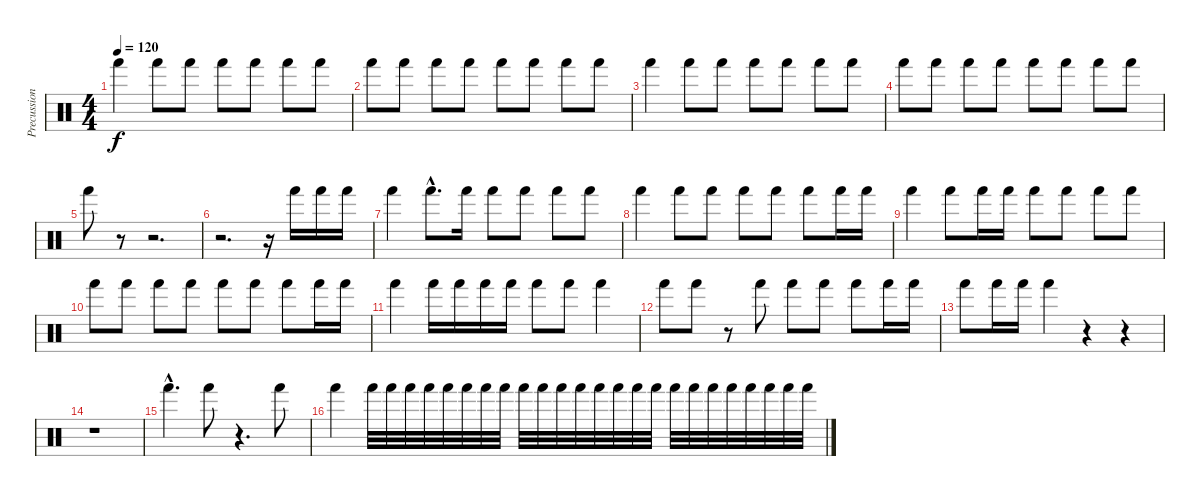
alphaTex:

\track ("Precussion" "Precussion") {instrument percussion}
\staff {score}
\articulation defaults
\ts (4 4)
\tempo 120
\clef neutral
\ks c "Hand (hit)".4{dy f} "Hand (hit)".8 "Hand (hit)".8 "Hand (hit)".8 "Hand (hit)".8 "Hand (hit)".8 "Hand (hit)".8
|
"Hand (hit)".8 "Hand (hit)".8 "Hand (hit)".8 "Hand (hit)".8 "Hand (hit)".8 "Hand (hit)".8 "Hand (hit)".8 "Hand (hit)".8 |
"Hand (hit)".4 "Hand (hit)".8 "Hand (hit)".8 "Hand (hit)".8 "Hand (hit)".8 "Hand (hit)".8 "Hand (hit)".8 |
"Hand (hit)".8 "Hand (hit)".8 "Hand (hit)".8 "Hand (hit)".8 "Hand (hit)".8 "Hand (hit)".8 "Hand (hit)".8 "Hand (hit)".8 |
"Hand (hit)".8 r.8 r.2{d} |
r.2{d} r.16 "Hand (hit)".16 "Hand (hit)".16 "Hand (hit)".16 |
"Hand (hit)".4 "Hand (hit)"{hac}.8{d} "Hand (hit)".16 "Hand (hit)".8 "Hand (hit)".8 "Hand (hit)".8 "Hand (hit)".8 |
"Hand (hit)".4 "Hand (hit)".8 "Hand (hit)".8 "Hand (hit)".8 "Hand (hit)".8 "Hand (hit)".8 "Hand (hit)".16 "Hand (hit)".16 |
"Hand (hit)".4 "Hand (hit)".8 "Hand (hit)".16 "Hand (hit)".16 "Hand (hit)".8 "Hand (hit)".8 "Hand (hit)".8 "Hand (hit)".8 |
"Hand (hit)".8 "Hand (hit)".8 "Hand (hit)".8 "Hand (hit)".8 "Hand (hit)".8 "Hand (hit)".8 "Hand (hit)".8 "Hand (hit)".16 "Hand (hit)".16 |
"Hand (hit)".4 "Hand (hit)".16 "Hand (hit)".16 "Hand (hit)".16 "Hand (hit)".16 "Hand (hit)".8 "Hand (hit)".8 "Hand (hit)".4 |
"Hand (hit)".8 "Hand (hit)".8 r.8 "Hand (hit)".8 "Hand (hit)".8 "Hand (hit)".8 "Hand (hit)".8 "Hand (hit)".16 "Hand (hit)".16 |
"Hand (hit)".8 "Hand (hit)".16 "Hand (hit)".16 "Hand (hit)".4 r.4 r.4 |
r.1 |
"Hand (hit)"{hac}.4{d} "Hand (hit)".8 r.4{d} "Hand (hit)".8 |
"Hand (hit)".4 "Hand (hit)".32 "Hand (hit)".32 "Hand (hit)".32 "Hand (hit)".32 "Hand (hit)".32 "Hand (hit)".32 "Hand (hit)".32 "Hand (hit)".32 "Hand (hit)".32 "Hand (hit)".32 "Hand (hit)".32 "Hand (hit)".32 "Hand (hit)".32 "Hand (hit)".32 "Hand (hit)".32 "Hand (hit)".32 "Hand (hit)".32 "Hand (hit)".32 "Hand (hit)".32 "Hand (hit)".32 "Hand (hit)".32 "Hand (hit)".32 "Hand (hit)".32 "Hand (hit)".32
